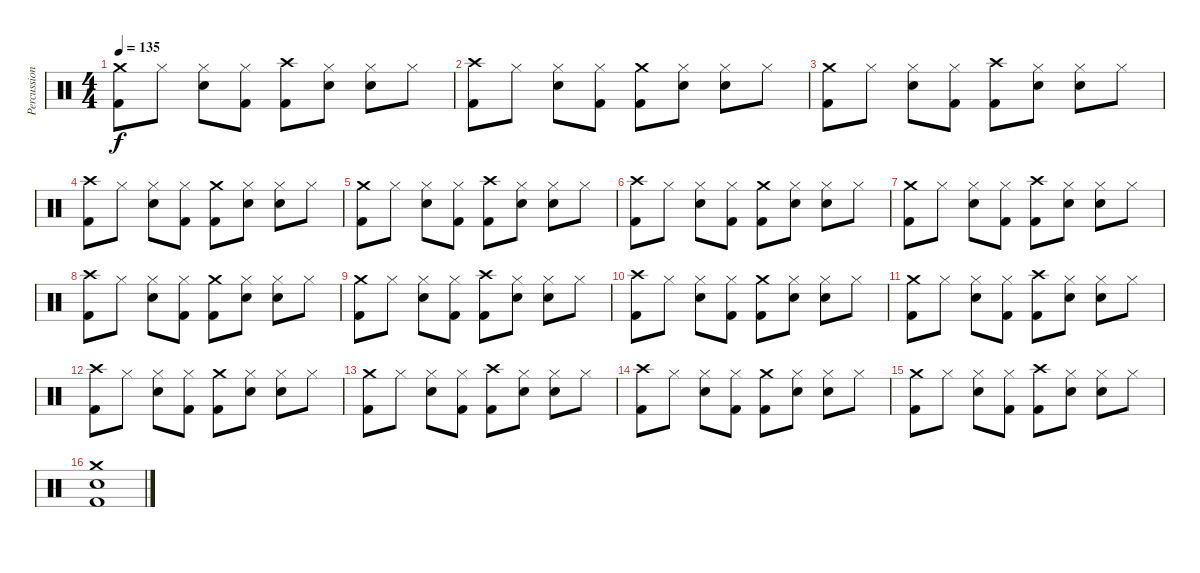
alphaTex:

\track ("Percussion" "Percussion") {instrument percussion}
\staff {score}
\articulation defaults
\ts (4 4)
\tempo 135
\clef neutral
\ks c
("Crash medium (hit)" "Kick (hit) 2").8{dy f} "Hi-Hat (closed)".8 ("Hi-Hat (closed)" "Snare (hit) 2").8 ("Hi-Hat (closed)" "Kick (hit) 2").8 ("Crash high (hit)" "Kick (hit) 2").8 ("Hi-Hat (closed)" "Snare (hit) 2").8 ("Hi-Hat (closed)" "Snare (hit) 2").8 "Hi-Hat (closed)".8 |
("Crash high (hit)" "Kick (hit) 2").8 "Hi-Hat (closed)".8 ("Hi-Hat (closed)" "Snare (hit) 2").8 ("Hi-Hat (closed)" "Kick (hit) 2").8 ("Crash medium (hit)" "Kick (hit) 2").8 ("Hi-Hat (closed)" "Snare (hit) 2").8 ("Hi-Hat (closed)" "Snare (hit) 2").8 "Hi-Hat (closed)".8 |
("Crash medium (hit)" "Kick (hit) 2").8 "Hi-Hat (closed)".8 ("Hi-Hat (closed)" "Snare (hit) 2").8 ("Hi-Hat (closed)" "Kick (hit) 2").8 ("Crash high (hit)" "Kick (hit) 2").8 ("Hi-Hat (closed)" "Snare (hit) 2").8 ("Hi-Hat (closed)" "Snare (hit) 2").8 "Hi-Hat (closed)".8 |
("Crash high (hit)" "Kick (hit) 2").8 "Hi-Hat (closed)".8 ("Hi-Hat (closed)" "Snare (hit) 2").8 ("Hi-Hat (closed)" "Kick (hit) 2").8 ("Crash medium (hit)" "Kick (hit) 2").8 ("Hi-Hat (closed)" "Snare (hit) 2").8 ("Hi-Hat (closed)" "Snare (hit) 2").8 "Hi-Hat (closed)".8 |
("Crash medium (hit)" "Kick (hit) 2").8 "Hi-Hat (closed)".8 ("Hi-Hat (closed)" "Snare (hit) 2").8 ("Hi-Hat (closed)" "Kick (hit) 2").8 ("Crash high (hit)" "Kick (hit) 2").8 ("Hi-Hat (closed)" "Snare (hit) 2").8 ("Hi-Hat (closed)" "Snare (hit) 2").8 "Hi-Hat (closed)".8 |
("Crash high (hit)" "Kick (hit) 2").8 "Hi-Hat (closed)".8 ("Hi-Hat (closed)" "Snare (hit) 2").8 ("Hi-Hat (closed)" "Kick (hit) 2").8 ("Crash medium (hit)" "Kick (hit) 2").8 ("Hi-Hat (closed)" "Snare (hit) 2").8 ("Hi-Hat (closed)" "Snare (hit) 2").8 "Hi-Hat (closed)".8 |
("Crash medium (hit)" "Kick (hit) 2").8 "Hi-Hat (closed)".8 ("Hi-Hat (closed)" "Snare (hit) 2").8 ("Hi-Hat (closed)" "Kick (hit) 2").8 ("Crash high (hit)" "Kick (hit) 2").8 ("Hi-Hat (closed)" "Snare (hit) 2").8 ("Hi-Hat (closed)" "Snare (hit) 2").8 "Hi-Hat (closed)".8 |
("Crash high (hit)" "Kick (hit) 2").8 "Hi-Hat (closed)".8 ("Hi-Hat (closed)" "Snare (hit) 2").8 ("Hi-Hat (closed)" "Kick (hit) 2").8 ("Crash medium (hit)" "Kick (hit) 2").8 ("Hi-Hat (closed)" "Snare (hit) 2").8 ("Hi-Hat (closed)" "Snare (hit) 2").8 "Hi-Hat (closed)".8 |
("Crash medium (hit)" "Kick (hit) 2").8 "Hi-Hat (closed)".8 ("Hi-Hat (closed)" "Snare (hit) 2").8 ("Hi-Hat (closed)" "Kick (hit) 2").8 ("Crash high (hit)" "Kick (hit) 2").8 ("Hi-Hat (closed)" "Snare (hit) 2").8 ("Hi-Hat (closed)" "Snare (hit) 2").8 "Hi-Hat (closed)".8 |
("Crash high (hit)" "Kick (hit) 2").8 "Hi-Hat (closed)".8 ("Hi-Hat (closed)" "Snare (hit) 2").8 ("Hi-Hat (closed)" "Kick (hit) 2").8 ("Crash medium (hit)" "Kick (hit) 2").8 ("Hi-Hat (closed)" "Snare (hit) 2").8 ("Hi-Hat (closed)" "Snare (hit) 2").8 "Hi-Hat (closed)".8 |
("Crash medium (hit)" "Kick (hit) 2").8 "Hi-Hat (closed)".8 ("Hi-Hat (closed)" "Snare (hit) 2").8 ("Hi-Hat (closed)" "Kick (hit) 2").8 ("Crash high (hit)" "Kick (hit) 2").8 ("Hi-Hat (closed)" "Snare (hit) 2").8 ("Hi-Hat (closed)" "Snare (hit) 2").8 "Hi-Hat (closed)".8 |
("Crash high (hit)" "Kick (hit) 2").8 "Hi-Hat (closed)".8 ("Hi-Hat (closed)" "Snare (hit) 2").8 ("Hi-Hat (closed)" "Kick (hit) 2").8 ("Crash medium (hit)" "Kick (hit) 2").8 ("Hi-Hat (closed)" "Snare (hit) 2").8 ("Hi-Hat (closed)" "Snare (hit) 2").8 "Hi-Hat (closed)".8 |
("Crash medium (hit)" "Kick (hit) 2").8 "Hi-Hat (closed)".8 ("Hi-Hat (closed)" "Snare (hit) 2").8 ("Hi-Hat (closed)" "Kick (hit) 2").8 ("Crash high (hit)" "Kick (hit) 2").8 ("Hi-Hat (closed)" "Snare (hit) 2").8 ("Hi-Hat (closed)" "Snare (hit) 2").8 "Hi-Hat (closed)".8 |
("Crash high (hit)" "Kick (hit) 2").8 "Hi-Hat (closed)".8 ("Hi-Hat (closed)" "Snare (hit) 2").8 ("Hi-Hat (closed)" "Kick (hit) 2").8 ("Crash medium (hit)" "Kick (hit) 2").8 ("Hi-Hat (closed)" "Snare (hit) 2").8 ("Hi-Hat (closed)" "Snare (hit) 2").8 "Hi-Hat (closed)".8 |
("Crash medium (hit)" "Kick (hit) 2").8 "Hi-Hat (closed)".8 ("Hi-Hat (closed)" "Snare (hit) 2").8 ("Hi-Hat (closed)" "Kick (hit) 2").8 ("Crash high (hit)" "Kick (hit) 2").8 ("Hi-Hat (closed)" "Snare (hit) 2").8 ("Hi-Hat (closed)" "Snare (hit) 2").8 "Hi-Hat (closed)".8 |
("Crash medium (hit)" "Snare (hit) 2" "Kick (hit) 2").1
